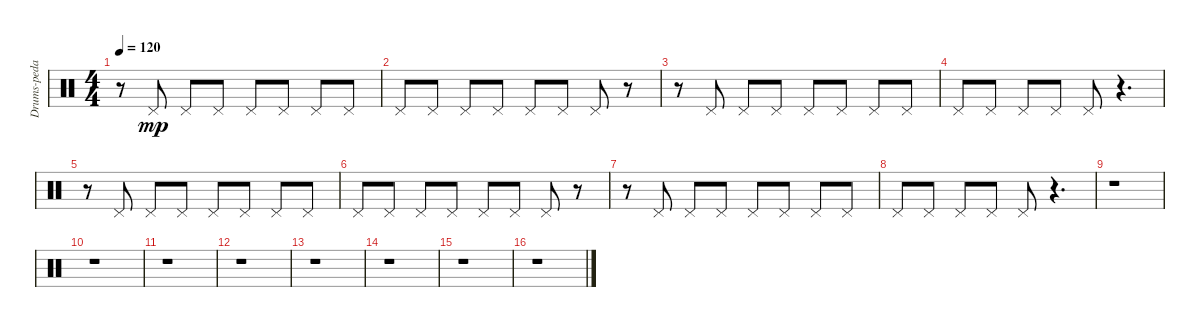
\track ("Drums-pedal hi-hat" "Drums-peda") {instrument percussion}
\staff {score}
\articulation defaults
\ts (4 4)
\tempo 120
\clef neutral
\ks c
r.8{dy mp} "Pedal Hi-Hat (hit)".8 "Pedal Hi-Hat (hit)".8 "Pedal Hi-Hat (hit)".8 "Pedal Hi-Hat (hit)".8 "Pedal Hi-Hat (hit)".8 "Pedal Hi-Hat (hit)".8 "Pedal Hi-Hat (hit)".8 |
"Pedal Hi-Hat (hit)".8 "Pedal Hi-Hat (hit)".8 "Pedal Hi-Hat (hit)".8 "Pedal Hi-Hat (hit)".8 "Pedal Hi-Hat (hit)".8 "Pedal Hi-Hat (hit)".8 "Pedal Hi-Hat (hit)".8 r.8 |
r.8 "Pedal Hi-Hat (hit)".8 "Pedal Hi-Hat (hit)".8 "Pedal Hi-Hat (hit)".8 "Pedal Hi-Hat (hit)".8 "Pedal Hi-Hat (hit)".8 "Pedal Hi-Hat (hit)".8 "Pedal Hi-Hat (hit)".8 |
"Pedal Hi-Hat (hit)".8 "Pedal Hi-Hat (hit)".8 "Pedal Hi-Hat (hit)".8 "Pedal Hi-Hat (hit)".8 "Pedal Hi-Hat (hit)".8 r.4{d} |
r.8 "Pedal Hi-Hat (hit)".8 "Pedal Hi-Hat (hit)".8 "Pedal Hi-Hat (hit)".8 "Pedal Hi-Hat (hit)".8 "Pedal Hi-Hat (hit)".8 "Pedal Hi-Hat (hit)".8 "Pedal Hi-Hat (hit)".8 |
"Pedal Hi-Hat (hit)".8 "Pedal Hi-Hat (hit)".8 "Pedal Hi-Hat (hit)".8 "Pedal Hi-Hat (hit)".8 "Pedal Hi-Hat (hit)".8 "Pedal Hi-Hat (hit)".8 "Pedal Hi-Hat (hit)".8 r.8 |
r.8 "Pedal Hi-Hat (hit)".8 "Pedal Hi-Hat (hit)".8 "Pedal Hi-Hat (hit)".8 "Pedal Hi-Hat (hit)".8 "Pedal Hi-Hat (hit)".8 "Pedal Hi-Hat (hit)".8 "Pedal Hi-Hat (hit)".8 |
"Pedal Hi-Hat (hit)".8 "Pedal Hi-Hat (hit)".8 "Pedal Hi-Hat (hit)".8 "Pedal Hi-Hat (hit)".8 "Pedal Hi-Hat (hit)".8 r.4{d} |
r.1 |
r.1 |
r.1 |
r.1 |
r.1 |
r.1 |
r.1 |
r.1
